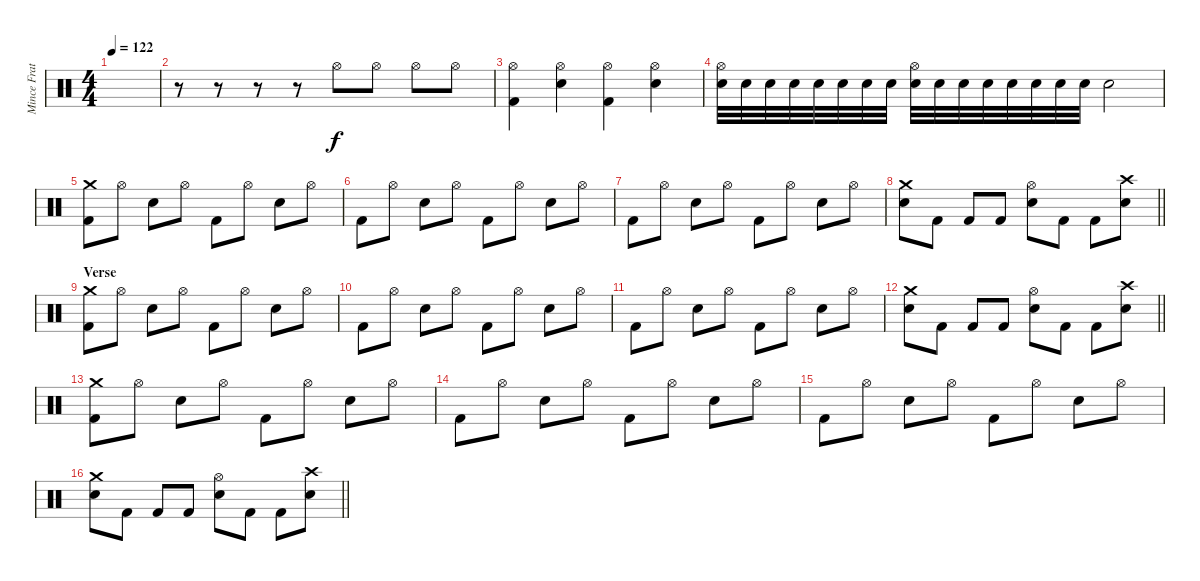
\track ("Mince Fratelli" "Mince Frat") {instrument percussion}
\staff {score}
\articulation defaults
\ts (4 4)
\tempo 122
\clef neutral
\ks c
|
r.8 r.8 r.8 r.8 "Hi-Hat (open)".8 "Hi-Hat (open)".8 "Hi-Hat (open)".8 "Hi-Hat (open)".8 |
("Hi-Hat (open)" "Kick (hit) 2").4 ("Hi-Hat (open)" "Snare (hit) 2").4 ("Hi-Hat (open)" "Kick (hit) 2").4 ("Hi-Hat (open)" "Snare (hit) 2").4 |
("Hi-Hat (open)" "Snare (hit) 2").32 "Snare (hit) 2".32 "Snare (hit) 2".32 "Snare (hit) 2".32 "Snare (hit) 2".32 "Snare (hit) 2".32 "Snare (hit) 2".32 "Snare (hit) 2".32 ("Hi-Hat (open)" "Snare (hit) 2").32 "Snare (hit) 2".32 "Snare (hit) 2".32 "Snare (hit) 2".32 "Snare (hit) 2".32 "Snare (hit) 2".32 "Snare (hit) 2".32 "Snare (hit) 2".32 "Snare (hit) 2".2 |
("Crash medium (hit)" "Kick (hit) 2").8 "Hi-Hat (open)".8 "Snare (hit) 2".8 "Hi-Hat (open)".8 "Kick (hit) 2".8 "Hi-Hat (open)".8 "Snare (hit) 2".8 "Hi-Hat (open)".8 |
"Kick (hit) 2".8 "Hi-Hat (open)".8 "Snare (hit) 2".8 "Hi-Hat (open)".8 "Kick (hit) 2".8 "Hi-Hat (open)".8 "Snare (hit) 2".8 "Hi-Hat (open)".8 |
"Kick (hit) 2".8 "Hi-Hat (open)".8 "Snare (hit) 2".8 "Hi-Hat (open)".8 "Kick (hit) 2".8 "Hi-Hat (open)".8 "Snare (hit) 2".8 "Hi-Hat (open)".8 |
\barLineRight lightlight
("Crash medium (hit)" "Snare (hit) 2").8 "Kick (hit) 2".8 "Kick (hit) 2".8 "Kick (hit) 2".8 ("Hi-Hat (open)" "Snare (hit) 2").8 "Kick (hit) 2".8 "Kick (hit) 2".8 ("Crash high (hit)" "Snare (hit) 2").8 |
\section ("" "Verse")
("Crash medium (hit)" "Kick (hit) 2").8 "Hi-Hat (open)".8 "Snare (hit) 2".8 "Hi-Hat (open)".8 "Kick (hit) 2".8 "Hi-Hat (open)".8 "Snare (hit) 2".8 "Hi-Hat (open)".8 |
"Kick (hit) 2".8 "Hi-Hat (open)".8 "Snare (hit) 2".8 "Hi-Hat (open)".8 "Kick (hit) 2".8 "Hi-Hat (open)".8 "Snare (hit) 2".8 "Hi-Hat (open)".8 |
"Kick (hit) 2".8 "Hi-Hat (open)".8 "Snare (hit) 2".8 "Hi-Hat (open)".8 "Kick (hit) 2".8 "Hi-Hat (open)".8 "Snare (hit) 2".8 "Hi-Hat (open)".8 |
\barLineRight lightlight
("Crash medium (hit)" "Snare (hit) 2").8 "Kick (hit) 2".8 "Kick (hit) 2".8 "Kick (hit) 2".8 ("Hi-Hat (open)" "Snare (hit) 2").8 "Kick (hit) 2".8 "Kick (hit) 2".8 ("Crash high (hit)" "Snare (hit) 2").8 |
("Crash medium (hit)" "Kick (hit) 2").8 "Hi-Hat (open)".8 "Snare (hit) 2".8 "Hi-Hat (open)".8 "Kick (hit) 2".8 "Hi-Hat (open)".8 "Snare (hit) 2".8 "Hi-Hat (open)".8 |
"Kick (hit) 2".8 "Hi-Hat (open)".8 "Snare (hit) 2".8 "Hi-Hat (open)".8 "Kick (hit) 2".8 "Hi-Hat (open)".8 "Snare (hit) 2".8 "Hi-Hat (open)".8 |
"Kick (hit) 2".8 "Hi-Hat (open)".8 "Snare (hit) 2".8 "Hi-Hat (open)".8 "Kick (hit) 2".8 "Hi-Hat (open)".8 "Snare (hit) 2".8 "Hi-Hat (open)".8 |
\barLineRight lightlight
("Crash medium (hit)" "Snare (hit) 2").8 "Kick (hit) 2".8 "Kick (hit) 2".8 "Kick (hit) 2".8 ("Hi-Hat (open)" "Snare (hit) 2").8 "Kick (hit) 2".8 "Kick (hit) 2".8 ("Crash high (hit)" "Snare (hit) 2").8
